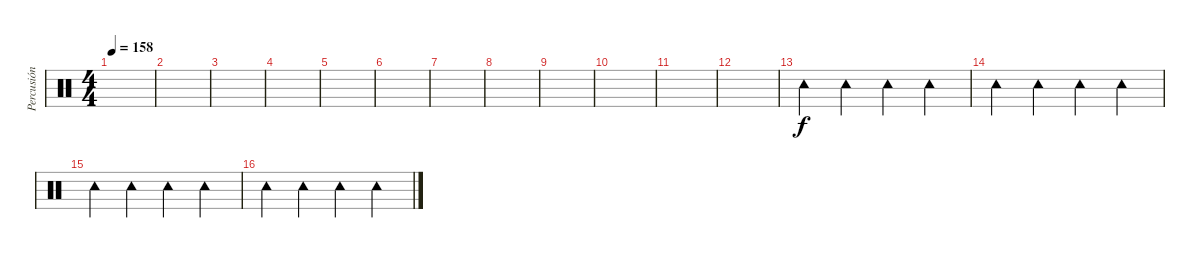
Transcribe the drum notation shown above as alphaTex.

\track ("Percusión" "Percusión") {instrument percussion}
\staff {score}
\articulation defaults
\ts (4 4)
\tempo 158
\clef neutral
\ks c
|
|
|
|
|
|
|
|
|
|
|
|
"Tambourine (hit)".4 "Tambourine (hit)".4 "Tambourine (hit)".4 "Tambourine (hit)".4 |
"Tambourine (hit)".4 "Tambourine (hit)".4 "Tambourine (hit)".4 "Tambourine (hit)".4 |
"Tambourine (hit)".4 "Tambourine (hit)".4 "Tambourine (hit)".4 "Tambourine (hit)".4 |
"Tambourine (hit)".4 "Tambourine (hit)".4 "Tambourine (hit)".4 "Tambourine (hit)".4
